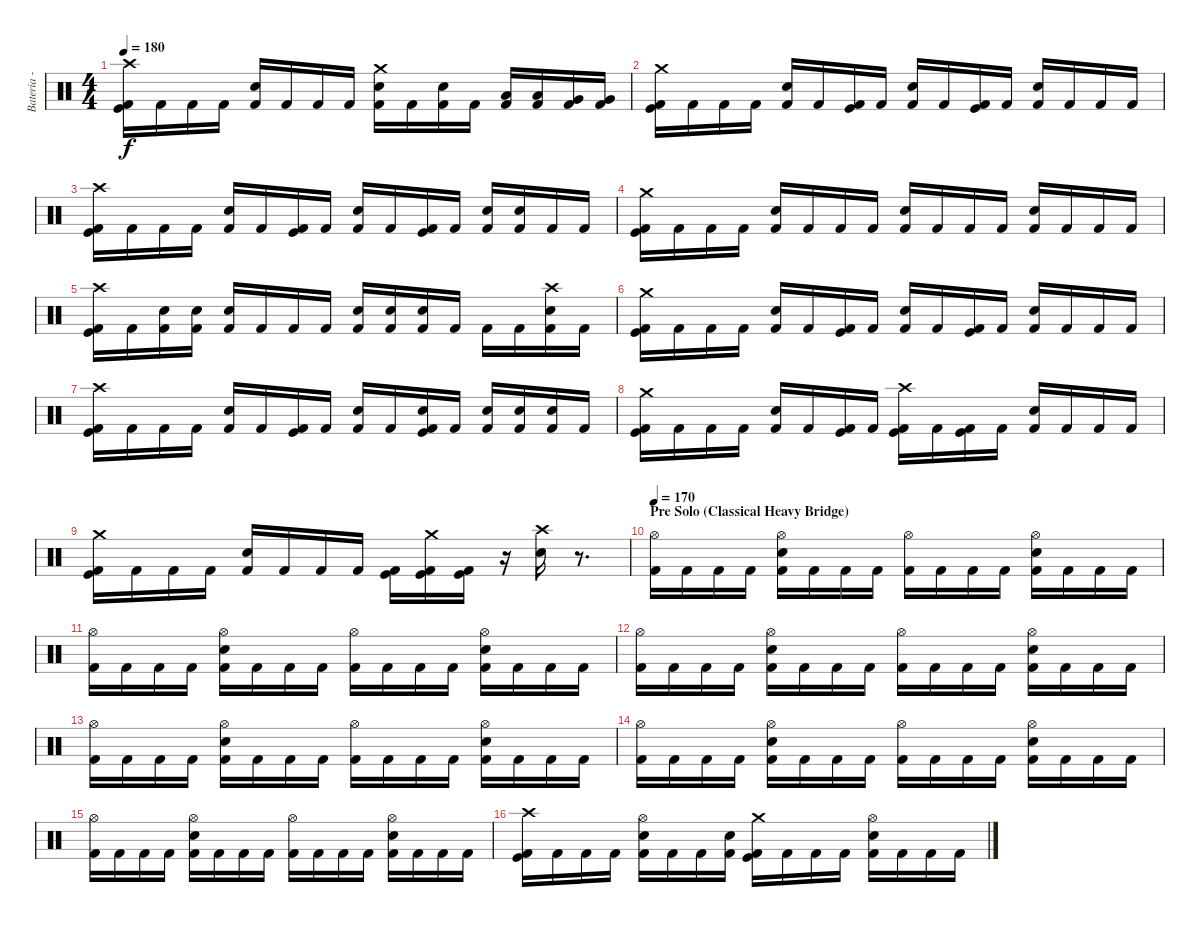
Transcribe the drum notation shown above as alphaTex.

\track ("Bateria - Drums" "Bateria - ") {instrument percussion}
\staff {score}
\articulation defaults
\ts (4 4)
\tempo 180
\clef neutral
\ks c
("Crash high (hit)" "Kick (hit)" "Kick (hit) 2").16{dy f} "Kick (hit) 2".16 "Kick (hit) 2".16 "Kick (hit) 2".16 ("Snare (hit) 2" "Kick (hit) 2").16 "Kick (hit) 2".16 "Kick (hit) 2".16 "Kick (hit) 2".16 ("Crash medium (hit)" "Snare (hit) 2" "Kick (hit) 2").16 "Kick (hit) 2".16 ("Electric Snare (hit)" "Kick (hit) 2").16 "Kick (hit) 2".16 ("Low Tom (hit)" "Kick (hit) 2").16 ("Low Tom (hit)" "Kick (hit) 2").16 ("Very Low Tom (hit)" "Kick (hit) 2").16 ("Very Low Tom (hit)" "Kick (hit) 2").16 |
("Crash medium (hit)" "Kick (hit)" "Kick (hit) 2").16 "Kick (hit) 2".16 "Kick (hit) 2".16 "Kick (hit) 2".16 ("Snare (hit) 2" "Kick (hit) 2").16 "Kick (hit) 2".16 ("Kick (hit)" "Kick (hit) 2").16 "Kick (hit) 2".16 ("Snare (hit) 2" "Kick (hit) 2").16 "Kick (hit) 2".16 ("Kick (hit)" "Kick (hit) 2").16 "Kick (hit) 2".16 ("Snare (hit) 2" "Kick (hit) 2").16 "Kick (hit) 2".16 "Kick (hit) 2".16 "Kick (hit) 2".16 |
("Crash high (hit)" "Kick (hit)" "Kick (hit) 2").16 "Kick (hit) 2".16 "Kick (hit) 2".16 "Kick (hit) 2".16 ("Snare (hit) 2" "Kick (hit) 2").16 "Kick (hit) 2".16 ("Kick (hit)" "Kick (hit) 2").16 "Kick (hit) 2".16 ("Snare (hit) 2" "Kick (hit) 2").16 "Kick (hit) 2".16 ("Kick (hit)" "Kick (hit) 2").16 "Kick (hit) 2".16 ("Snare (hit) 2" "Kick (hit) 2").16 ("Snare (hit) 2" "Kick (hit) 2").16 "Kick (hit) 2".16 "Kick (hit) 2".16 |
("Crash medium (hit)" "Kick (hit)" "Kick (hit) 2").16 "Kick (hit) 2".16 "Kick (hit) 2".16 "Kick (hit) 2".16 ("Snare (hit) 2" "Kick (hit) 2").16 "Kick (hit) 2".16 "Kick (hit) 2".16 "Kick (hit) 2".16 ("Snare (hit) 2" "Kick (hit) 2").16 "Kick (hit) 2".16 "Kick (hit) 2".16 "Kick (hit) 2".16 ("Snare (hit) 2" "Kick (hit) 2").16 "Kick (hit) 2".16 "Kick (hit) 2".16 "Kick (hit) 2".16 |
("Crash high (hit)" "Kick (hit)" "Kick (hit) 2").16 "Kick (hit) 2".16 ("Electric Snare (hit)" "Kick (hit) 2").16 ("Electric Snare (hit)" "Kick (hit) 2").16 ("Snare (hit) 2" "Kick (hit) 2").16 "Kick (hit) 2".16 "Kick (hit) 2".16 "Kick (hit) 2".16 ("Electric Snare (hit)" "Kick (hit) 2").16 ("Electric Snare (hit)" "Kick (hit) 2").16 ("Electric Snare (hit)" "Kick (hit) 2").16 "Kick (hit) 2".16 "Kick (hit) 2".16 "Kick (hit) 2".16 ("Crash high (hit)" "Snare (hit) 2" "Kick (hit) 2").16 "Kick (hit) 2".16 |
("Crash medium (hit)" "Kick (hit)" "Kick (hit) 2").16 "Kick (hit) 2".16 "Kick (hit) 2".16 "Kick (hit) 2".16 ("Snare (hit) 2" "Kick (hit) 2").16 "Kick (hit) 2".16 ("Kick (hit)" "Kick (hit) 2").16 "Kick (hit) 2".16 ("Snare (hit) 2" "Kick (hit) 2").16 "Kick (hit) 2".16 ("Kick (hit)" "Kick (hit) 2").16 "Kick (hit) 2".16 ("Snare (hit) 2" "Kick (hit) 2").16 "Kick (hit) 2".16 "Kick (hit) 2".16 "Kick (hit) 2".16 |
("Crash high (hit)" "Kick (hit)" "Kick (hit) 2").16 "Kick (hit) 2".16 "Kick (hit) 2".16 "Kick (hit) 2".16 ("Snare (hit) 2" "Kick (hit) 2").16 "Kick (hit) 2".16 ("Kick (hit)" "Kick (hit) 2").16 "Kick (hit) 2".16 ("Snare (hit) 2" "Kick (hit) 2").16 "Kick (hit) 2".16 ("Snare (hit) 2" "Kick (hit)" "Kick (hit) 2").16 "Kick (hit) 2".16 ("Snare (hit) 2" "Kick (hit) 2").16 ("Snare (hit) 2" "Kick (hit) 2").16 ("Snare (hit) 2" "Kick (hit) 2").16 "Kick (hit) 2".16 |
("Crash medium (hit)" "Kick (hit)" "Kick (hit) 2").16 "Kick (hit) 2".16 "Kick (hit) 2".16 "Kick (hit) 2".16 ("Snare (hit) 2" "Kick (hit) 2").16 "Kick (hit) 2".16 ("Kick (hit)" "Kick (hit) 2").16 "Kick (hit) 2".16 ("Crash high (hit)" "Kick (hit)" "Kick (hit) 2").16 "Kick (hit) 2".16 ("Kick (hit)" "Kick (hit) 2").16 "Kick (hit) 2".16 ("Snare (hit) 2" "Kick (hit) 2").16 "Kick (hit) 2".16 "Kick (hit) 2".16 "Kick (hit) 2".16 |
("Crash medium (hit)" "Kick (hit)" "Kick (hit) 2").16 "Kick (hit) 2".16 "Kick (hit) 2".16 "Kick (hit) 2".16 ("Snare (hit) 2" "Kick (hit) 2").16 "Kick (hit) 2".16 "Kick (hit) 2".16 "Kick (hit) 2".16 ("Kick (hit)" "Kick (hit) 2").16 ("Crash medium (hit)" "Kick (hit)" "Kick (hit) 2").16 ("Kick (hit)" "Kick (hit) 2").16 r.16 ("Crash high (hit)" "Snare (hit) 2").16 r.8{d} |
\section ("" "Pre Solo (Classical Heavy Bridge)")
\tempo 170
("Hi-Hat (open)" "Kick (hit) 2").16 "Kick (hit) 2".16 "Kick (hit) 2".16 "Kick (hit) 2".16 ("Hi-Hat (open)" "Electric Snare (hit)" "Kick (hit) 2").16 "Kick (hit) 2".16 "Kick (hit) 2".16 "Kick (hit) 2".16 ("Hi-Hat (open)" "Kick (hit) 2").16 "Kick (hit) 2".16 "Kick (hit) 2".16 "Kick (hit) 2".16 ("Hi-Hat (open)" "Electric Snare (hit)" "Kick (hit) 2").16 "Kick (hit) 2".16 "Kick (hit) 2".16 "Kick (hit) 2".16 |
("Hi-Hat (open)" "Kick (hit) 2").16 "Kick (hit) 2".16 "Kick (hit) 2".16 "Kick (hit) 2".16 ("Hi-Hat (open)" "Electric Snare (hit)" "Kick (hit) 2").16 "Kick (hit) 2".16 "Kick (hit) 2".16 "Kick (hit) 2".16 ("Hi-Hat (open)" "Kick (hit) 2").16 "Kick (hit) 2".16 "Kick (hit) 2".16 "Kick (hit) 2".16 ("Hi-Hat (open)" "Electric Snare (hit)" "Kick (hit) 2").16 "Kick (hit) 2".16 "Kick (hit) 2".16 "Kick (hit) 2".16 |
("Hi-Hat (open)" "Kick (hit) 2").16 "Kick (hit) 2".16 "Kick (hit) 2".16 "Kick (hit) 2".16 ("Hi-Hat (open)" "Electric Snare (hit)" "Kick (hit) 2").16 "Kick (hit) 2".16 "Kick (hit) 2".16 "Kick (hit) 2".16 ("Hi-Hat (open)" "Kick (hit) 2").16 "Kick (hit) 2".16 "Kick (hit) 2".16 "Kick (hit) 2".16 ("Hi-Hat (open)" "Electric Snare (hit)" "Kick (hit) 2").16 "Kick (hit) 2".16 "Kick (hit) 2".16 "Kick (hit) 2".16 |
("Hi-Hat (open)" "Kick (hit) 2").16 "Kick (hit) 2".16 "Kick (hit) 2".16 "Kick (hit) 2".16 ("Hi-Hat (open)" "Electric Snare (hit)" "Kick (hit) 2").16 "Kick (hit) 2".16 "Kick (hit) 2".16 "Kick (hit) 2".16 ("Hi-Hat (open)" "Kick (hit) 2").16 "Kick (hit) 2".16 "Kick (hit) 2".16 "Kick (hit) 2".16 ("Hi-Hat (open)" "Electric Snare (hit)" "Kick (hit) 2").16 "Kick (hit) 2".16 "Kick (hit) 2".16 "Kick (hit) 2".16 |
("Hi-Hat (open)" "Kick (hit) 2").16 "Kick (hit) 2".16 "Kick (hit) 2".16 "Kick (hit) 2".16 ("Hi-Hat (open)" "Electric Snare (hit)" "Kick (hit) 2").16 "Kick (hit) 2".16 "Kick (hit) 2".16 "Kick (hit) 2".16 ("Hi-Hat (open)" "Kick (hit) 2").16 "Kick (hit) 2".16 "Kick (hit) 2".16 "Kick (hit) 2".16 ("Hi-Hat (open)" "Electric Snare (hit)" "Kick (hit) 2").16 "Kick (hit) 2".16 "Kick (hit) 2".16 "Kick (hit) 2".16 |
("Hi-Hat (open)" "Kick (hit) 2").16 "Kick (hit) 2".16 "Kick (hit) 2".16 "Kick (hit) 2".16 ("Hi-Hat (open)" "Electric Snare (hit)" "Kick (hit) 2").16 "Kick (hit) 2".16 "Kick (hit) 2".16 "Kick (hit) 2".16 ("Hi-Hat (open)" "Kick (hit) 2").16 "Kick (hit) 2".16 "Kick (hit) 2".16 "Kick (hit) 2".16 ("Hi-Hat (open)" "Electric Snare (hit)" "Kick (hit) 2").16 "Kick (hit) 2".16 "Kick (hit) 2".16 "Kick (hit) 2".16 |
("Crash high (hit)" "Kick (hit)" "Kick (hit) 2").16 "Kick (hit) 2".16 "Kick (hit) 2".16 "Kick (hit) 2".16 ("Hi-Hat (open)" "Electric Snare (hit)" "Kick (hit) 2").16 "Kick (hit) 2".16 "Kick (hit) 2".16 ("Electric Snare (hit)" "Kick (hit) 2").16 ("Crash medium (hit)" "Kick (hit)" "Kick (hit) 2").16 "Kick (hit) 2".16 "Kick (hit) 2".16 "Kick (hit) 2".16 ("Hi-Hat (open)" "Electric Snare (hit)" "Kick (hit) 2").16 "Kick (hit) 2".16 "Kick (hit) 2".16 "Kick (hit) 2".16
